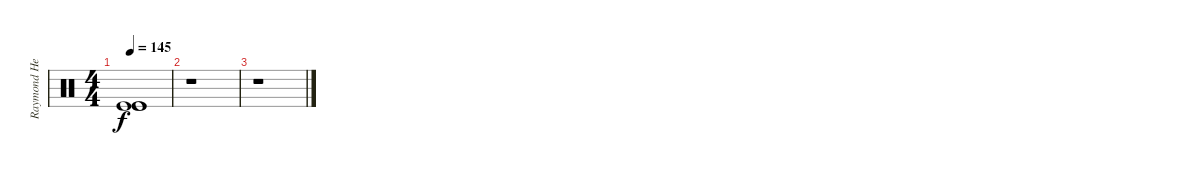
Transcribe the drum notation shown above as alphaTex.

\track ("Raymond Herrera" "Raymond He") {instrument percussion}
\staff {score}
\articulation defaults
\ts (4 4)
\tempo 145
\clef neutral
\ks c
("Kick (hit)" "Kick (hit)" "Kick (hit)").1{dy f} |
r.1 |
r.1
